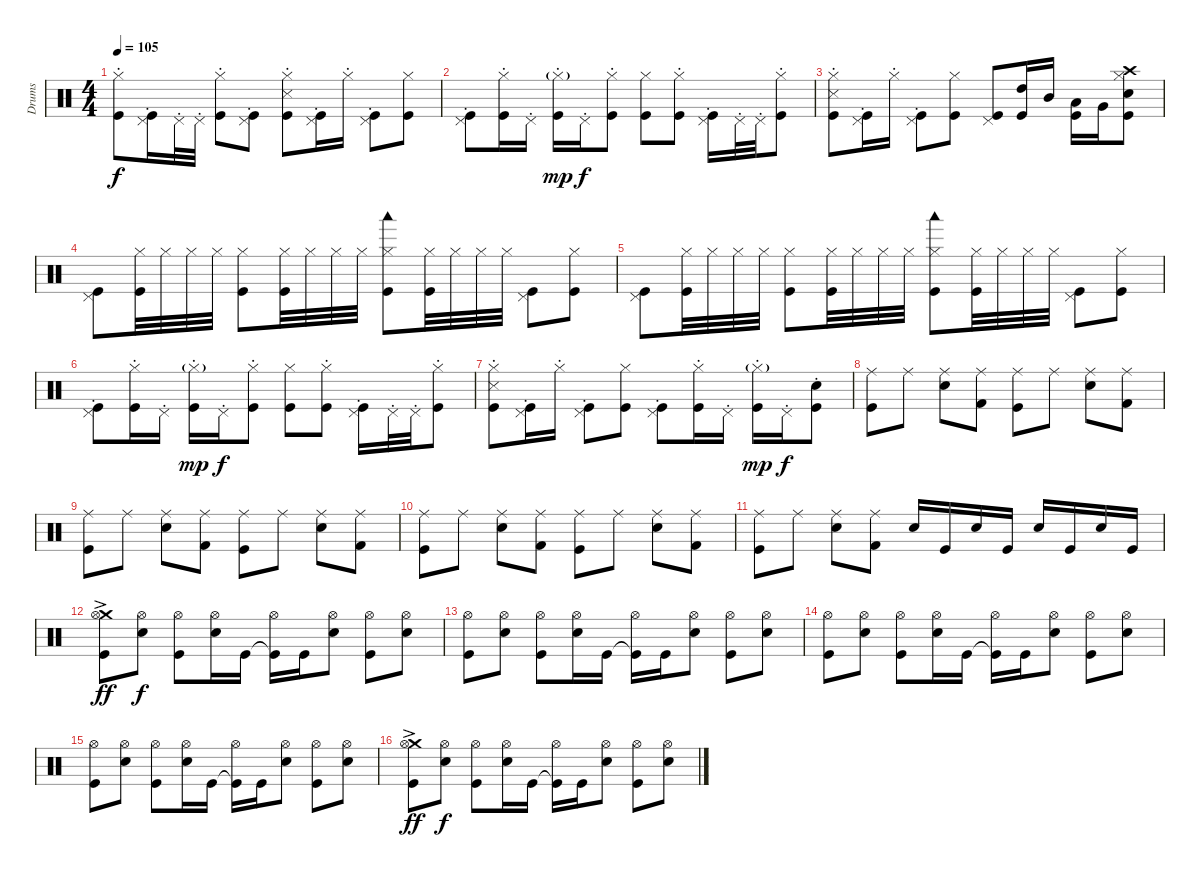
\track ("Drums" "Drums") {instrument percussion}
\staff {score}
\articulation defaults
\ts (4 4)
\tempo 105
\clef neutral
\ks c
("Hi-Hat (closed)"{st} "Kick (hit)").8{dy f} ("Pedal Hi-Hat (hit)"{st} "Kick (hit)").16 "Pedal Hi-Hat (hit)"{st}.32 "Pedal Hi-Hat (hit)"{st}.32 ("Hi-Hat (closed)"{st} "Kick (hit)"{st}).8 ("Pedal Hi-Hat (hit)"{st} "Kick (hit)").8 ("Hi-Hat (closed)"{st} "Snare (side stick) 3"{st} "Kick (hit)").8 ("Pedal Hi-Hat (hit)"{st} "Kick (hit)").16 "Hi-Hat (closed)"{st}.16 ("Pedal Hi-Hat (hit)"{st} "Kick (hit)").8 ("Hi-Hat (closed)" "Kick (hit)").8 |
("Pedal Hi-Hat (hit)"{st} "Kick (hit)").8 ("Hi-Hat (closed)"{st} "Kick (hit)").16 "Pedal Hi-Hat (hit)"{st}.16 ("Hi-Hat (closed)"{g st} "Kick (hit)").16{dy mp} "Pedal Hi-Hat (hit)"{st}.16{dy f} ("Hi-Hat (closed)"{st} "Kick (hit)").8 ("Hi-Hat (closed)" "Kick (hit)").8 ("Hi-Hat (closed)"{st} "Kick (hit)").8 ("Pedal Hi-Hat (hit)"{st} "Kick (hit)").16 "Pedal Hi-Hat (hit)"{st}.32 "Pedal Hi-Hat (hit)"{st}.32 ("Hi-Hat (closed)"{st} "Kick (hit)").8 |
("Hi-Hat (closed)"{st} "Snare (side stick) 3"{st} "Kick (hit)").8 ("Pedal Hi-Hat (hit)"{st} "Kick (hit)").16 "Hi-Hat (closed)"{st}.16 ("Pedal Hi-Hat (hit)"{st} "Kick (hit)").8 ("Hi-Hat (closed)" "Kick (hit)").8 ("Pedal Hi-Hat (hit)" "Kick (hit)").8 ("High Tom (hit)" "Kick (hit)").16 "Mid Tom (hit)".16 ("Low Tom (hit)" "Kick (hit)").16 "Very Low Tom (hit)".16 ("Electric Snare (hit)" "Hi-Hat (closed)" "Crash high (hit)" "Kick (hit)").8 |
("Pedal Hi-Hat (hit)" "Kick (hit)").8 ("Hi-Hat (closed)" "Kick (hit)").32 "Hi-Hat (closed)".32 "Hi-Hat (closed)".32 "Hi-Hat (closed)".32 ("Hi-Hat (closed)" "Kick (hit)").8 ("Hi-Hat (closed)" "Kick (hit)").32 "Hi-Hat (closed)".32 "Hi-Hat (closed)".32 "Hi-Hat (closed)".32 ("Hi-Hat (closed)" "Woodblock low (hit)" "Kick (hit)").8 ("Hi-Hat (closed)" "Kick (hit)").32 "Hi-Hat (closed)".32 "Hi-Hat (closed)".32 "Hi-Hat (closed)".32 ("Pedal Hi-Hat (hit)" "Kick (hit)").8 ("Hi-Hat (closed)" "Kick (hit)").8 |
("Pedal Hi-Hat (hit)" "Kick (hit)").8 ("Hi-Hat (closed)" "Kick (hit)").32 "Hi-Hat (closed)".32 "Hi-Hat (closed)".32 "Hi-Hat (closed)".32 ("Hi-Hat (closed)" "Kick (hit)").8 ("Hi-Hat (closed)" "Kick (hit)").32 "Hi-Hat (closed)".32 "Hi-Hat (closed)".32 "Hi-Hat (closed)".32 ("Hi-Hat (closed)" "Woodblock low (hit)" "Kick (hit)").8 ("Hi-Hat (closed)" "Kick (hit)").32 "Hi-Hat (closed)".32 "Hi-Hat (closed)".32 "Hi-Hat (closed)".32 ("Pedal Hi-Hat (hit)" "Kick (hit)").8 ("Hi-Hat (closed)" "Kick (hit)").8 |
("Pedal Hi-Hat (hit)"{st} "Kick (hit)").8 ("Hi-Hat (closed)"{st} "Kick (hit)").16 "Pedal Hi-Hat (hit)"{st}.16 ("Hi-Hat (closed)"{g st} "Kick (hit)").16{dy mp} "Pedal Hi-Hat (hit)"{st}.16{dy f} ("Hi-Hat (closed)"{st} "Kick (hit)").8 ("Hi-Hat (closed)" "Kick (hit)").8 ("Hi-Hat (closed)"{st} "Kick (hit)").8 ("Pedal Hi-Hat (hit)"{st} "Kick (hit)").16 "Pedal Hi-Hat (hit)"{st}.32 "Pedal Hi-Hat (hit)"{st}.32 ("Hi-Hat (closed)"{st} "Kick (hit)").8 |
("Hi-Hat (closed)"{st} "Snare (side stick) 3"{st} "Kick (hit)").8 ("Pedal Hi-Hat (hit)"{st} "Kick (hit)").16 "Hi-Hat (closed)"{st}.16 ("Pedal Hi-Hat (hit)"{st} "Kick (hit)").8 ("Hi-Hat (closed)" "Kick (hit)").8 ("Pedal Hi-Hat (hit)"{st} "Kick (hit)").8 ("Hi-Hat (closed)"{st} "Kick (hit)").16 "Pedal Hi-Hat (hit)"{st}.16 ("Hi-Hat (closed)"{g st} "Kick (hit)").16{dy mp} "Pedal Hi-Hat (hit)"{st}.16{dy f} ("Electric Snare (hit)"{st} "Kick (hit)").8 |
("Kick (hit)" "Ride (middle)").8 "Ride (middle)".8 ("Electric Snare (hit)" "Ride (middle)").8 ("Kick (hit) 2" "Ride (middle)").8 ("Kick (hit)" "Ride (middle)").8 "Ride (middle)".8 ("Electric Snare (hit)" "Ride (middle)").8 ("Kick (hit) 2" "Ride (middle)").8 |
("Kick (hit)" "Ride (middle)").8 "Ride (middle)".8 ("Electric Snare (hit)" "Ride (middle)").8 ("Kick (hit) 2" "Ride (middle)").8 ("Kick (hit)" "Ride (middle)").8 "Ride (middle)".8 ("Electric Snare (hit)" "Ride (middle)").8 ("Kick (hit) 2" "Ride (middle)").8 |
("Kick (hit)" "Ride (middle)").8 "Ride (middle)".8 ("Electric Snare (hit)" "Ride (middle)").8 ("Kick (hit) 2" "Ride (middle)").8 ("Kick (hit)" "Ride (middle)").8 "Ride (middle)".8 ("Electric Snare (hit)" "Ride (middle)").8 ("Kick (hit) 2" "Ride (middle)").8 |
("Kick (hit)" "Ride (middle)").8 "Ride (middle)".8 ("Electric Snare (hit)" "Ride (middle)").8 ("Kick (hit) 2" "Ride (middle)").8 "Electric Snare (hit)".16 "Kick (hit)".16 "Electric Snare (hit)".16 "Kick (hit)".16 "Electric Snare (hit)".16 "Kick (hit)".16 "Electric Snare (hit)".16 "Kick (hit)".16 |
("Kick (hit)" "Crash medium (hit)"{ac} "Hi-Hat (open)").8{dy ff} ("Electric Snare (hit)" "Hi-Hat (open)").8{dy f} ("Kick (hit)" "Hi-Hat (open)").8 ("Electric Snare (hit)" "Hi-Hat (open)").16 "Kick (hit)".16 ("Kick (hit)"{t} "Hi-Hat (open)").16 "Kick (hit)".16 ("Electric Snare (hit)" "Hi-Hat (open)").8 ("Kick (hit)" "Hi-Hat (open)").8 ("Electric Snare (hit)" "Hi-Hat (open)").8 |
("Kick (hit)" "Hi-Hat (open)").8 ("Electric Snare (hit)" "Hi-Hat (open)").8 ("Kick (hit)" "Hi-Hat (open)").8 ("Electric Snare (hit)" "Hi-Hat (open)").16 "Kick (hit)".16 ("Kick (hit)"{t} "Hi-Hat (open)").16 "Kick (hit)".16 ("Electric Snare (hit)" "Hi-Hat (open)").8 ("Kick (hit)" "Hi-Hat (open)").8 ("Electric Snare (hit)" "Hi-Hat (open)").8 |
("Kick (hit)" "Hi-Hat (open)").8 ("Electric Snare (hit)" "Hi-Hat (open)").8 ("Kick (hit)" "Hi-Hat (open)").8 ("Electric Snare (hit)" "Hi-Hat (open)").16 "Kick (hit)".16 ("Kick (hit)"{t} "Hi-Hat (open)").16 "Kick (hit)".16 ("Electric Snare (hit)" "Hi-Hat (open)").8 ("Kick (hit)" "Hi-Hat (open)").8 ("Electric Snare (hit)" "Hi-Hat (open)").8 |
("Kick (hit)" "Hi-Hat (open)").8 ("Electric Snare (hit)" "Hi-Hat (open)").8 ("Kick (hit)" "Hi-Hat (open)").8 ("Electric Snare (hit)" "Hi-Hat (open)").16 "Kick (hit)".16 ("Kick (hit)"{t} "Hi-Hat (open)").16 "Kick (hit)".16 ("Electric Snare (hit)" "Hi-Hat (open)").8 ("Kick (hit)" "Hi-Hat (open)").8 ("Electric Snare (hit)" "Hi-Hat (open)").8 |
("Kick (hit)" "Crash medium (hit)"{ac} "Hi-Hat (open)").8{dy ff} ("Electric Snare (hit)" "Hi-Hat (open)").8{dy f} ("Kick (hit)" "Hi-Hat (open)").8 ("Electric Snare (hit)" "Hi-Hat (open)").16 "Kick (hit)".16 ("Kick (hit)"{t} "Hi-Hat (open)").16 "Kick (hit)".16 ("Electric Snare (hit)" "Hi-Hat (open)").8 ("Kick (hit)" "Hi-Hat (open)").8 ("Electric Snare (hit)" "Hi-Hat (open)").8
